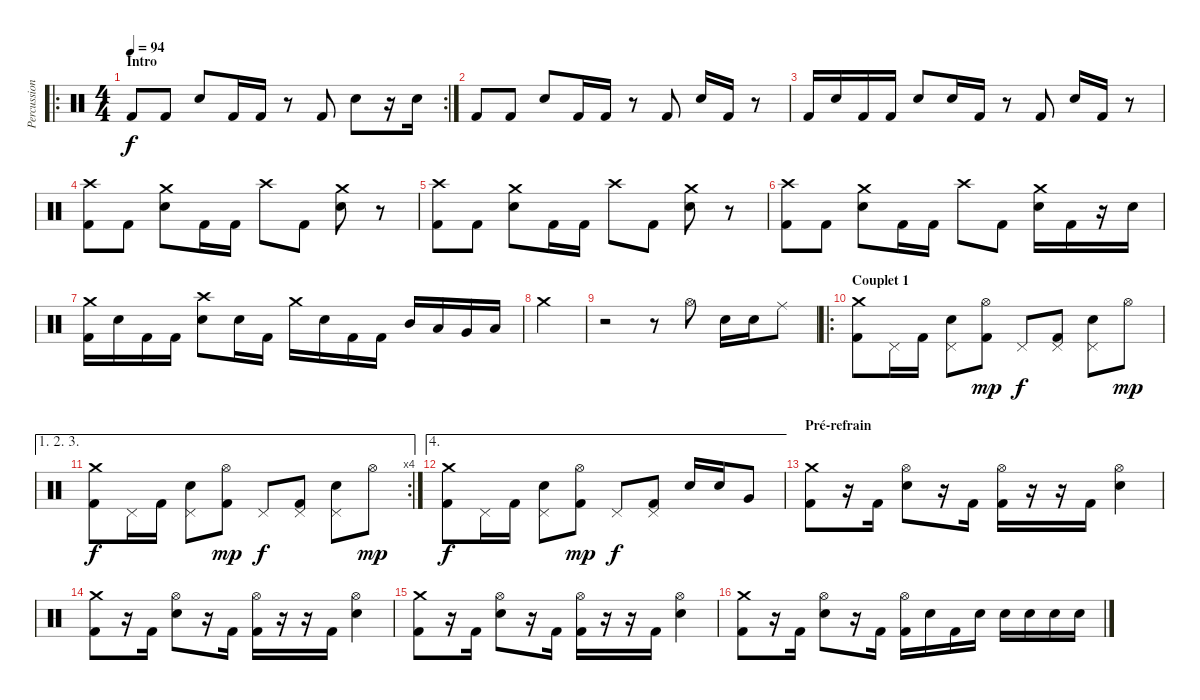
\track ("Percussions" "Percussion") {instrument percussion}
\staff {score}
\articulation defaults
\ro
\rc 2
\ts (4 4)
\section ("" "Intro")
\tempo 94
\clef neutral
\ks c "Kick (hit) 2".8{dy f volume 8} "Kick (hit) 2".8 "Snare (hit) 2".8 "Kick (hit) 2".16 "Kick (hit) 2".16
r.8 "Kick (hit) 2".8 "Snare (hit) 2".8 r.16 "Snare (hit) 2".16 |
"Kick (hit) 2".8 "Kick (hit) 2".8 "Snare (hit) 2".8 "Kick (hit) 2".16 "Kick (hit) 2".16 r.8 "Kick (hit) 2".8 "Snare (hit) 2".16 "Kick (hit) 2".16 r.8 |
"Kick (hit) 2".16 "Snare (hit) 2".16 "Kick (hit) 2".16 "Kick (hit) 2".16 "Snare (hit) 2".8 "Snare (hit) 2".16 "Kick (hit) 2".16 r.8 "Kick (hit) 2".8 "Snare (hit) 2".16 "Kick (hit) 2".16 r.8 |
("Crash high (hit)" "Kick (hit) 2").8{volume 13} "Kick (hit) 2".8 ("Crash medium (hit)" "Electric Snare (hit)").8 "Kick (hit) 2".16 "Kick (hit) 2".16 "Crash high (hit)".8 "Kick (hit) 2".8 ("Crash medium (hit)" "Electric Snare (hit)").8 r.8 |
("Crash high (hit)" "Kick (hit) 2").8 "Kick (hit) 2".8 ("Crash medium (hit)" "Electric Snare (hit)").8 "Kick (hit) 2".16 "Kick (hit) 2".16 "Crash high (hit)".8 "Kick (hit) 2".8 ("Crash medium (hit)" "Electric Snare (hit)").8 r.8 |
("Crash high (hit)" "Kick (hit) 2").8 "Kick (hit) 2".8 ("Crash medium (hit)" "Electric Snare (hit)").8 "Kick (hit) 2".16 "Kick (hit) 2".16 "Crash high (hit)".8 "Kick (hit) 2".8 ("Crash medium (hit)" "Electric Snare (hit)").16 "Kick (hit) 2".16 r.16 "Electric Snare (hit)".16 |
("Crash medium (hit)" "Kick (hit) 2").16 "Electric Snare (hit)".16 "Kick (hit) 2".16 "Kick (hit) 2".16 ("Crash high (hit)" "Electric Snare (hit)").8 "Electric Snare (hit)".16 "Kick (hit) 2".16 "Crash medium (hit)".16 "Electric Snare (hit)".16 "Kick (hit) 2".16 "Kick (hit) 2".16 "Mid Tom (hit)".16 "Low Tom (hit)".16 "Very Low Tom (hit)".16 "Low Floor Tom (hit)".16 |
"Crash medium (hit)".4 |
r.2 r.8 "Hi-Hat (open)".8 "Electric Snare (hit)".16 "Electric Snare (hit)".16 "Ride (middle)".8 |
\ro
\section ("" "Couplet 1")
("Crash medium (hit)" "Kick (hit) 2").8 "Pedal Hi-Hat (hit)".16 "Kick (hit) 2".16 ("Pedal Hi-Hat (hit)" "Electric Snare (hit)").8 ("Hi-Hat (open)" "Kick (hit) 2").8{dy mp} "Pedal Hi-Hat (hit)".8{dy f} ("Pedal Hi-Hat (hit)" "Kick (hit) 2").8 ("Pedal Hi-Hat (hit)" "Electric Snare (hit)").8 "Hi-Hat (open)".8{dy mp} |
\ae (1 2 3)
\rc 4
("Crash medium (hit)" "Kick (hit) 2").8{dy f} "Pedal Hi-Hat (hit)".16 "Kick (hit) 2".16 ("Pedal Hi-Hat (hit)" "Electric Snare (hit)").8 ("Hi-Hat (open)" "Kick (hit) 2").8{dy mp} "Pedal Hi-Hat (hit)".8{dy f} ("Pedal Hi-Hat (hit)" "Kick (hit) 2").8 ("Pedal Hi-Hat (hit)" "Electric Snare (hit)").8 "Hi-Hat (open)".8{dy mp} |
\ae 4
("Crash medium (hit)" "Kick (hit) 2").8{dy f} "Pedal Hi-Hat (hit)".16 "Kick (hit) 2".16 ("Pedal Hi-Hat (hit)" "Electric Snare (hit)").8 ("Hi-Hat (open)" "Kick (hit) 2").8{dy mp} "Pedal Hi-Hat (hit)".8{dy f} ("Pedal Hi-Hat (hit)" "Kick (hit) 2").8 "Electric Snare (hit)".16 "Electric Snare (hit)".16 "Very Low Tom (hit)".8 |
\section ("" "Pré-refrain")
("Crash medium (hit)" "Kick (hit) 2").8 r.16 "Kick (hit) 2".16 ("Hi-Hat (open)" "Electric Snare (hit)").8 r.16 "Kick (hit) 2".16 ("Hi-Hat (open)" "Kick (hit) 2").16 r.16 r.16 "Kick (hit) 2".16 ("Hi-Hat (open)" "Electric Snare (hit)").4 |
("Crash medium (hit)" "Kick (hit) 2").8 r.16 "Kick (hit) 2".16 ("Hi-Hat (open)" "Electric Snare (hit)").8 r.16 "Kick (hit) 2".16 ("Hi-Hat (open)" "Kick (hit) 2").16 r.16 r.16 "Kick (hit) 2".16 ("Hi-Hat (open)" "Electric Snare (hit)").4 |
("Crash medium (hit)" "Kick (hit) 2").8 r.16 "Kick (hit) 2".16 ("Hi-Hat (open)" "Electric Snare (hit)").8 r.16 "Kick (hit) 2".16 ("Hi-Hat (open)" "Kick (hit) 2").16 r.16 r.16 "Kick (hit) 2".16 ("Hi-Hat (open)" "Electric Snare (hit)").4 |
("Crash medium (hit)" "Kick (hit) 2").8 r.16 "Kick (hit) 2".16 ("Hi-Hat (open)" "Electric Snare (hit)").8 r.16 "Kick (hit) 2".16 ("Hi-Hat (open)" "Kick (hit) 2").16 "Electric Snare (hit)".16 "Kick (hit) 2".16 "Electric Snare (hit)".16 "Electric Snare (hit)".16 "Electric Snare (hit)".16 "Electric Snare (hit)".16 "Electric Snare (hit)".16
